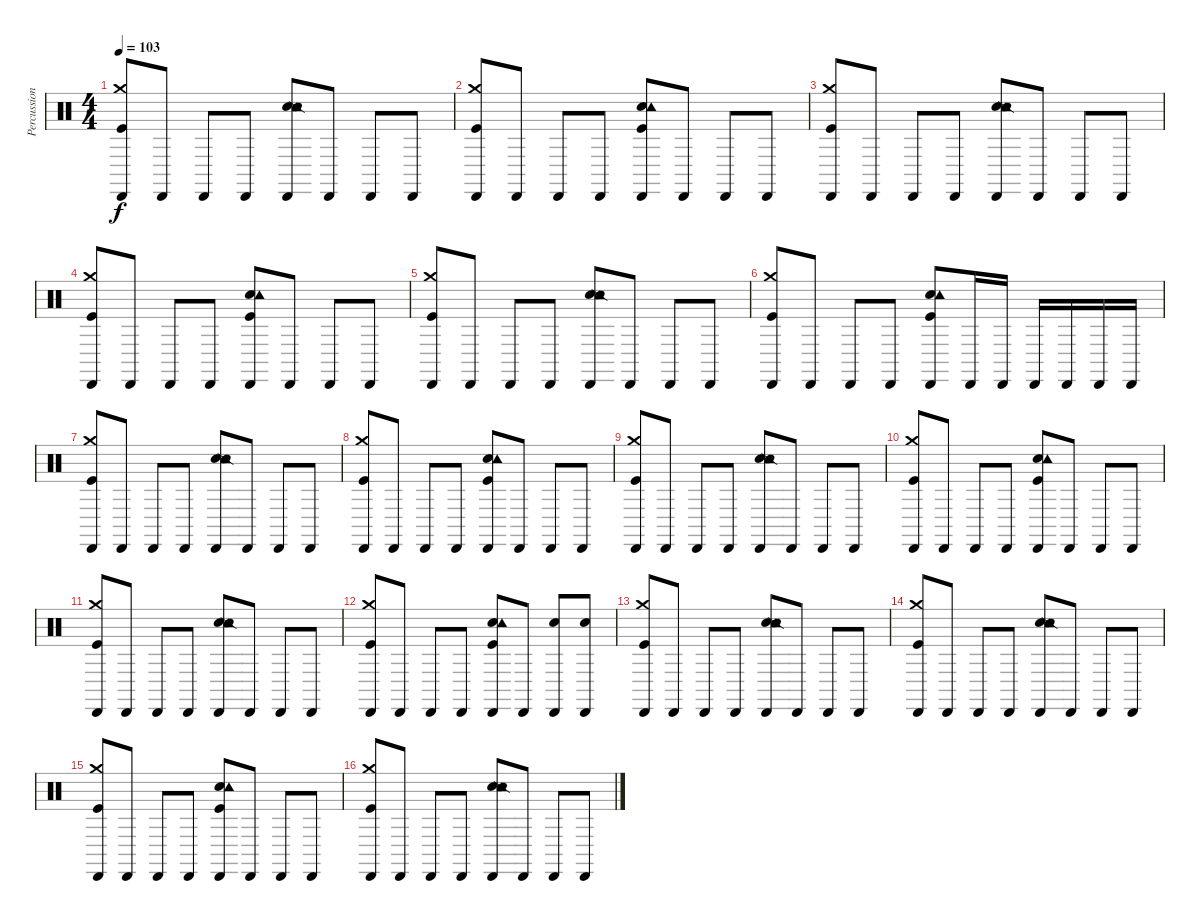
\track ("Percussion" "Percussion") {instrument percussion}
\staff {score}
\articulation defaults
\ts (4 4)
\tempo 103
\clef neutral
\ks c
("Cabasa (hit)" "Kick (hit)" "Crash medium (hit)").8{dy f} "Cabasa (hit)".8 "Cabasa (hit)".8 "Cabasa (hit)".8 ("Cabasa (hit)" "Hand Clap (hit)" "Snare (side stick) 2" "Tambourine (hit)").8 "Cabasa (hit)".8 "Cabasa (hit)".8 "Cabasa (hit)".8 |
("Cabasa (hit)" "Kick (hit)" "Crash medium (hit)").8 "Cabasa (hit)".8 "Cabasa (hit)".8 "Cabasa (hit)".8 ("Cabasa (hit)" "Hand Clap (hit)" "Kick (hit)" "Tambourine (hit)").8 "Cabasa (hit)".8 "Cabasa (hit)".8 "Cabasa (hit)".8 |
("Cabasa (hit)" "Kick (hit)" "Crash medium (hit)").8 "Cabasa (hit)".8 "Cabasa (hit)".8 "Cabasa (hit)".8 ("Cabasa (hit)" "Hand Clap (hit)" "Snare (side stick) 2" "Tambourine (hit)").8 "Cabasa (hit)".8 "Cabasa (hit)".8 "Cabasa (hit)".8 |
("Cabasa (hit)" "Kick (hit)" "Crash medium (hit)").8 "Cabasa (hit)".8 "Cabasa (hit)".8 "Cabasa (hit)".8 ("Cabasa (hit)" "Hand Clap (hit)" "Kick (hit)" "Tambourine (hit)").8 "Cabasa (hit)".8 "Cabasa (hit)".8 "Cabasa (hit)".8 |
("Cabasa (hit)" "Kick (hit)" "Crash medium (hit)").8 "Cabasa (hit)".8 "Cabasa (hit)".8 "Cabasa (hit)".8 ("Cabasa (hit)" "Hand Clap (hit)" "Snare (side stick) 2" "Tambourine (hit)").8 "Cabasa (hit)".8 "Cabasa (hit)".8 "Cabasa (hit)".8 |
("Cabasa (hit)" "Kick (hit)" "Crash medium (hit)").8 "Cabasa (hit)".8 "Cabasa (hit)".8 "Cabasa (hit)".8 ("Cabasa (hit)" "Hand Clap (hit)" "Kick (hit)" "Tambourine (hit)").8 "Cabasa (hit)".16 "Cabasa (hit)".16 "Cabasa (hit)".16 "Cabasa (hit)".16 "Cabasa (hit)".16 "Cabasa (hit)".16 |
("Cabasa (hit)" "Kick (hit)" "Crash medium (hit)").8 "Cabasa (hit)".8 "Cabasa (hit)".8 "Cabasa (hit)".8 ("Cabasa (hit)" "Hand Clap (hit)" "Snare (side stick) 2" "Tambourine (hit)").8 "Cabasa (hit)".8 "Cabasa (hit)".8 "Cabasa (hit)".8 |
("Cabasa (hit)" "Kick (hit)" "Crash medium (hit)").8 "Cabasa (hit)".8 "Cabasa (hit)".8 "Cabasa (hit)".8 ("Cabasa (hit)" "Hand Clap (hit)" "Kick (hit)" "Tambourine (hit)").8 "Cabasa (hit)".8 "Cabasa (hit)".8 "Cabasa (hit)".8 |
("Cabasa (hit)" "Kick (hit)" "Crash medium (hit)").8 "Cabasa (hit)".8 "Cabasa (hit)".8 "Cabasa (hit)".8 ("Cabasa (hit)" "Hand Clap (hit)" "Snare (side stick) 2" "Tambourine (hit)").8 "Cabasa (hit)".8 "Cabasa (hit)".8 "Cabasa (hit)".8 |
("Cabasa (hit)" "Kick (hit)" "Crash medium (hit)").8 "Cabasa (hit)".8 "Cabasa (hit)".8 "Cabasa (hit)".8 ("Cabasa (hit)" "Hand Clap (hit)" "Kick (hit)" "Tambourine (hit)").8 "Cabasa (hit)".8 "Cabasa (hit)".8 "Cabasa (hit)".8 |
("Cabasa (hit)" "Kick (hit)" "Crash medium (hit)").8 "Cabasa (hit)".8 "Cabasa (hit)".8 "Cabasa (hit)".8 ("Cabasa (hit)" "Hand Clap (hit)" "Snare (side stick) 2" "Tambourine (hit)").8 "Cabasa (hit)".8 "Cabasa (hit)".8 "Cabasa (hit)".8 |
("Cabasa (hit)" "Kick (hit)" "Crash medium (hit)").8 "Cabasa (hit)".8 "Cabasa (hit)".8 "Cabasa (hit)".8 ("Cabasa (hit)" "Hand Clap (hit)" "Kick (hit)" "Tambourine (hit)").8 "Cabasa (hit)".8 ("Cabasa (hit)" "Hand Clap (hit)").8 ("Cabasa (hit)" "Hand Clap (hit)").8 |
("Cabasa (hit)" "Kick (hit)" "Crash medium (hit)").8 "Cabasa (hit)".8 "Cabasa (hit)".8 "Cabasa (hit)".8 ("Cabasa (hit)" "Hand Clap (hit)" "Snare (side stick) 2" "Tambourine (hit)").8 "Cabasa (hit)".8 "Cabasa (hit)".8 "Cabasa (hit)".8 |
("Cabasa (hit)" "Kick (hit)" "Crash medium (hit)").8 "Cabasa (hit)".8 "Cabasa (hit)".8 "Cabasa (hit)".8 ("Cabasa (hit)" "Hand Clap (hit)" "Snare (side stick) 2" "Tambourine (hit)").8 "Cabasa (hit)".8 "Cabasa (hit)".8 "Cabasa (hit)".8 |
("Cabasa (hit)" "Kick (hit)" "Crash medium (hit)").8 "Cabasa (hit)".8 "Cabasa (hit)".8 "Cabasa (hit)".8 ("Cabasa (hit)" "Hand Clap (hit)" "Kick (hit)" "Tambourine (hit)").8 "Cabasa (hit)".8 "Cabasa (hit)".8 "Cabasa (hit)".8 |
("Cabasa (hit)" "Kick (hit)" "Crash medium (hit)").8 "Cabasa (hit)".8 "Cabasa (hit)".8 "Cabasa (hit)".8 ("Cabasa (hit)" "Hand Clap (hit)" "Snare (side stick) 2" "Tambourine (hit)").8 "Cabasa (hit)".8 "Cabasa (hit)".8 "Cabasa (hit)".8
